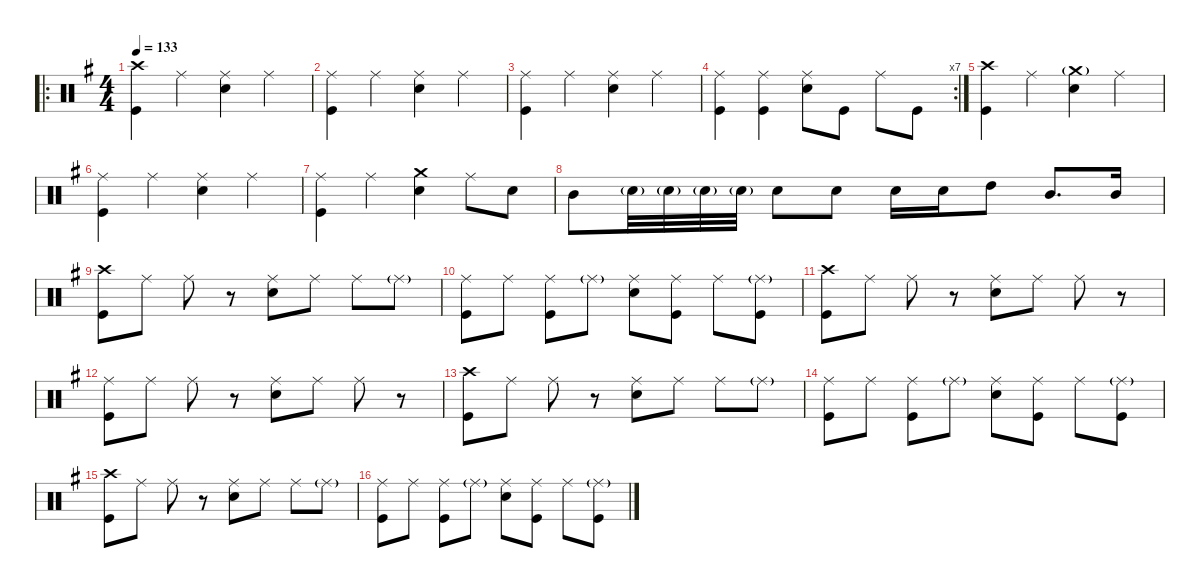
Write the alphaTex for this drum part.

\defaultSystemsLayout 4
\hideDynamics
\bracketExtendMode nobrackets
\singleTrackTrackNamePolicy hidden
\multiTrackTrackNamePolicy hidden
\firstSystemTrackNameMode fullname
\firstSystemTrackNameOrientation horizontal
\otherSystemsTrackNameOrientation horizontal
\track ("Drums" "drm.") {instrument percussion}
\staff {score}
\articulation defaults
\ro
\ts (4 4)
\tempo 133
\clef neutral
\ks eminor
("Crash high (hit)"{acc forcenatural} "Kick (hit)"{acc forcenatural}).4{dy f beam Down} "Ride (middle)"{acc forcenatural}.4{beam Down} ("Ride (middle)"{acc forcenatural} "Snare (hit) 2"{acc forcenatural}).4{beam Down} "Ride (middle)"{acc forcenatural}.4{beam Down} |
("Ride (middle)"{acc forcenatural} "Kick (hit)"{acc forcenatural}).4{beam Down} "Ride (middle)"{acc forcenatural}.4{beam Down} ("Ride (middle)"{acc forcenatural} "Snare (hit) 2"{acc forcenatural}).4{beam Down} "Ride (middle)"{acc forcenatural}.4{beam Down} |
("Ride (middle)"{acc forcenatural} "Kick (hit)"{acc forcenatural}).4{beam Down} "Ride (middle)"{acc forcenatural}.4{beam Down} ("Ride (middle)"{acc forcenatural} "Snare (hit) 2"{acc forcenatural}).4{beam Down} "Ride (middle)"{acc forcenatural}.4{beam Down} |
\rc 7
("Ride (middle)"{acc forcenatural} "Kick (hit)"{acc forcenatural}).4{beam Down} ("Ride (middle)"{acc forcenatural} "Kick (hit)"{acc forcenatural}).4{beam Down} ("Ride (middle)"{acc forcenatural} "Snare (hit) 2"{acc forcenatural}).8{beam Down} "Kick (hit)"{acc forcenatural}.8{beam Down} "Ride (middle)"{acc forcenatural}.8{beam Down} "Kick (hit)"{acc forcenatural}.8{beam Down} |
("Crash high (hit)"{acc forcenatural} "Kick (hit)"{acc forcenatural}).4{beam Down} "Ride (middle)"{acc forcenatural}.4{beam Down} ("Crash medium (hit)"{g acc forcenatural} "Snare (hit) 2"{acc forcenatural}).4{beam Down} "Ride (middle)"{acc forcenatural}.4{beam Down} |
("Ride (middle)"{acc forcenatural} "Kick (hit)"{acc forcenatural}).4{beam Down} "Ride (middle)"{acc forcenatural}.4{beam Down} ("Ride (middle)"{acc forcenatural} "Snare (hit) 2"{acc forcenatural}).4{beam Down} "Ride (middle)"{acc forcenatural}.4{beam Down} |
("Ride (middle)"{acc forcenatural} "Kick (hit)"{acc forcenatural}).4{beam Down} "Ride (middle)"{acc forcenatural}.4{beam Down} ("Crash medium (hit)"{acc forcenatural} "Snare (hit) 2"{acc forcenatural}).4{beam Down} "Ride (middle)"{acc forcenatural}.8{beam Down} "Snare (hit) 2"{acc forcenatural}.8{beam Down} |
"Mid Tom (hit)"{acc forcenatural}.8{beam Down} "Snare (hit) 2"{g acc forcenatural}.32{dy mf beam Down} "Snare (hit) 2"{g acc forcenatural}.32{beam Down} "Snare (hit) 2"{g acc forcenatural}.32{beam Down} "Snare (hit) 2"{g acc forcenatural}.32{beam Down} "Snare (hit) 2"{acc forcenatural}.8{dy f beam Down} "Snare (hit) 2"{acc forcenatural}.8{beam Down} "Snare (hit) 2"{acc forcenatural}.16{beam Down} "Snare (hit) 2"{acc forcenatural}.16{beam Down} "High Tom (hit)"{acc forcenatural}.8{beam Down} "Mid Tom (hit)"{acc forcenatural}.8{d beam Up} "Mid Tom (hit)"{acc forcenatural}.16{beam Up} |
("Crash high (hit)"{acc forcenatural} "Kick (hit)"{acc forcenatural}).8{beam Down} "Ride (middle)"{acc forcenatural}.8{beam Down} "Ride (middle)"{acc forcenatural}.8{beam Down} r.8{beam Down} ("Ride (middle)"{acc forcenatural} "Snare (hit) 2"{acc forcenatural}).8{beam Down} "Ride (middle)"{acc forcenatural}.8{beam Down} "Ride (middle)"{acc forcenatural}.8{beam Down} "Ride (middle)"{g acc forcenatural}.8{dy mf beam Down} |
("Ride (middle)"{acc forcenatural} "Kick (hit)"{acc forcenatural}).8{dy f beam Down} "Ride (middle)"{acc forcenatural}.8{beam Down} ("Ride (middle)"{acc forcenatural} "Kick (hit)"{acc forcenatural}).8{beam Down} "Ride (middle)"{g acc forcenatural}.8{dy mf beam Down} ("Ride (middle)"{acc forcenatural} "Snare (hit) 2"{acc forcenatural}).8{dy f beam Down} ("Ride (middle)"{acc forcenatural} "Kick (hit)"{acc forcenatural}).8{beam Down} "Ride (middle)"{acc forcenatural}.8{beam Down} ("Ride (middle)"{g acc forcenatural} "Kick (hit)"{acc forcenatural}).8{beam Down} |
("Crash high (hit)"{acc forcenatural} "Kick (hit)"{acc forcenatural}).8{beam Down} "Ride (middle)"{acc forcenatural}.8{beam Down} "Ride (middle)"{acc forcenatural}.8{beam Down} r.8{beam Down} ("Ride (middle)"{acc forcenatural} "Snare (hit) 2"{acc forcenatural}).8{beam Down} "Ride (middle)"{acc forcenatural}.8{beam Down} "Ride (middle)"{acc forcenatural}.8{beam Down} r.8{beam Down} |
("Ride (middle)"{acc forcenatural} "Kick (hit)"{acc forcenatural}).8{beam Down} "Ride (middle)"{acc forcenatural}.8{beam Down} "Ride (middle)"{acc forcenatural}.8{beam Down} r.8{beam Down} ("Ride (middle)"{acc forcenatural} "Snare (hit) 2"{acc forcenatural}).8{beam Down} "Ride (middle)"{acc forcenatural}.8{beam Down} "Ride (middle)"{acc forcenatural}.8{beam Down} r.8{beam Down} |
("Crash high (hit)"{acc forcenatural} "Kick (hit)"{acc forcenatural}).8{beam Down} "Ride (middle)"{acc forcenatural}.8{beam Down} "Ride (middle)"{acc forcenatural}.8{beam Down} r.8{beam Down} ("Ride (middle)"{acc forcenatural} "Snare (hit) 2"{acc forcenatural}).8{beam Down} "Ride (middle)"{acc forcenatural}.8{beam Down} "Ride (middle)"{acc forcenatural}.8{beam Down} "Ride (middle)"{g acc forcenatural}.8{dy mf beam Down} |
("Ride (middle)"{acc forcenatural} "Kick (hit)"{acc forcenatural}).8{dy f beam Down} "Ride (middle)"{acc forcenatural}.8{beam Down} ("Ride (middle)"{acc forcenatural} "Kick (hit)"{acc forcenatural}).8{beam Down} "Ride (middle)"{g acc forcenatural}.8{dy mf beam Down} ("Ride (middle)"{acc forcenatural} "Snare (hit) 2"{acc forcenatural}).8{dy f beam Down} ("Ride (middle)"{acc forcenatural} "Kick (hit)"{acc forcenatural}).8{beam Down} "Ride (middle)"{acc forcenatural}.8{beam Down} ("Ride (middle)"{g acc forcenatural} "Kick (hit)"{acc forcenatural}).8{beam Down} |
("Crash high (hit)"{acc forcenatural} "Kick (hit)"{acc forcenatural}).8{beam Down} "Ride (middle)"{acc forcenatural}.8{beam Down} "Ride (middle)"{acc forcenatural}.8{beam Down} r.8{beam Down} ("Ride (middle)"{acc forcenatural} "Snare (hit) 2"{acc forcenatural}).8{beam Down} "Ride (middle)"{acc forcenatural}.8{beam Down} "Ride (middle)"{acc forcenatural}.8{beam Down} "Ride (middle)"{g acc forcenatural}.8{dy mf beam Down} |
("Ride (middle)"{acc forcenatural} "Kick (hit)"{acc forcenatural}).8{dy f beam Down} "Ride (middle)"{acc forcenatural}.8{beam Down} ("Ride (middle)"{acc forcenatural} "Kick (hit)"{acc forcenatural}).8{beam Down} "Ride (middle)"{g acc forcenatural}.8{dy mf beam Down} ("Ride (middle)"{acc forcenatural} "Snare (hit) 2"{acc forcenatural}).8{dy f beam Down} ("Ride (middle)"{acc forcenatural} "Kick (hit)"{acc forcenatural}).8{beam Down} "Ride (middle)"{acc forcenatural}.8{beam Down} ("Ride (middle)"{g acc forcenatural} "Kick (hit)"{acc forcenatural}).8{beam Down}
